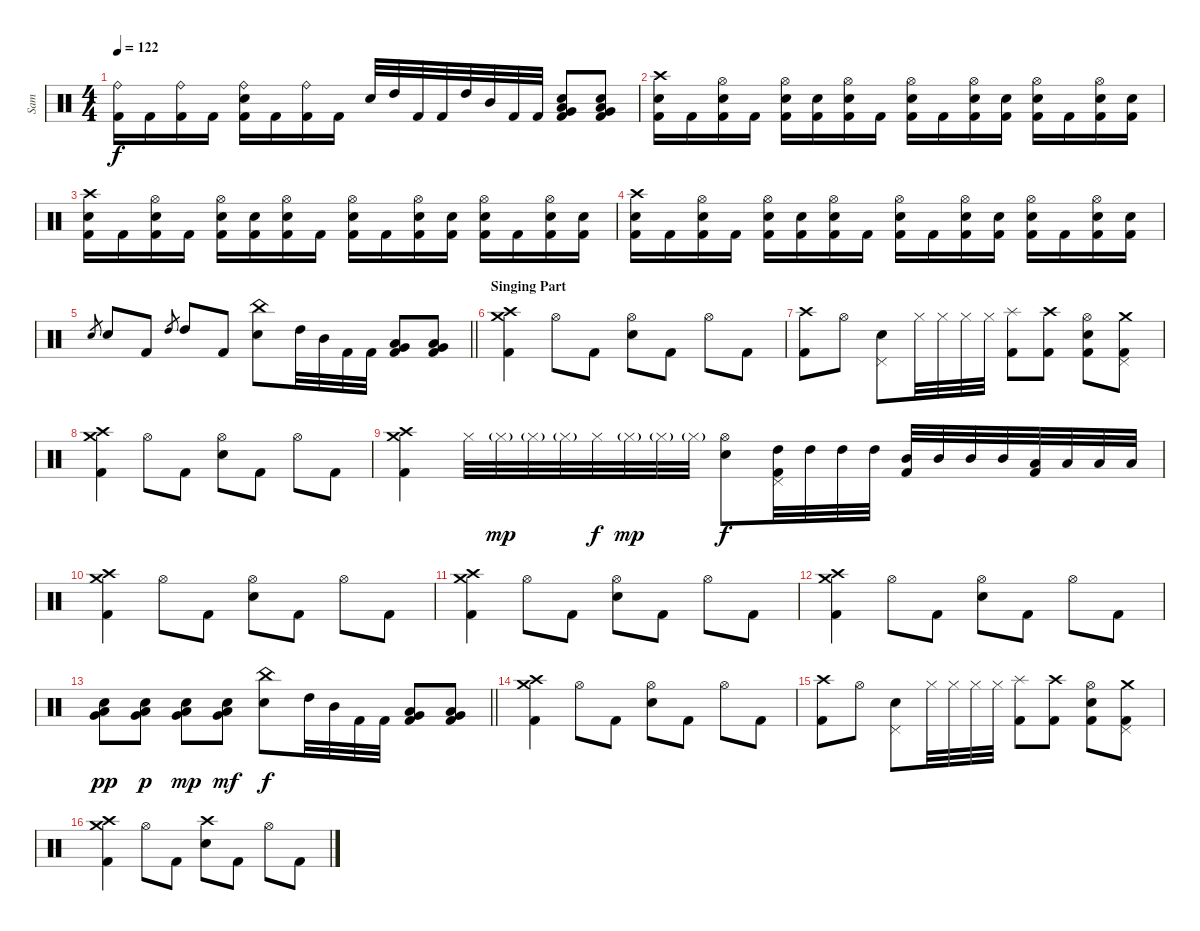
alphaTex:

\track ("Sam" "Sam") {solo instrument percussion}
\staff {score}
\articulation defaults
\ts (4 4)
\tempo 122
\clef neutral
\ks c
("Ride (bell)" "Kick (hit) 2").16{dy f} "Kick (hit) 2".16 ("Ride (bell)" "Kick (hit) 2").16 "Kick (hit) 2".16 ("Ride (bell)" "Electric Snare (hit)" "Kick (hit) 2").16 "Kick (hit) 2".16 ("Ride (bell)" "Kick (hit) 2").16 "Kick (hit) 2".16 "Electric Snare (hit)".32 "High Tom (hit)".32 "Kick (hit) 2".32 "Kick (hit) 2".32 "High Tom (hit)".32 "Mid Tom (hit)".32 "Kick (hit) 2".32 "Kick (hit) 2".32 ("Electric Snare (hit)" "Very Low Tom (hit)" "Low Floor Tom (hit)" "Kick (hit) 2").8 ("Electric Snare (hit)" "Very Low Tom (hit)" "Low Floor Tom (hit)" "Kick (hit) 2").8 |
("Crash high (hit)" "Electric Snare (hit)" "Kick (hit) 2").16 "Kick (hit) 2".16 ("Hi-Hat (open)" "Electric Snare (hit)" "Kick (hit) 2").16 "Kick (hit) 2".16 ("Hi-Hat (open)" "Electric Snare (hit)" "Kick (hit) 2").16 ("Electric Snare (hit)" "Kick (hit) 2").16 ("Hi-Hat (open)" "Electric Snare (hit)" "Kick (hit) 2").16 "Kick (hit) 2".16 ("Hi-Hat (open)" "Electric Snare (hit)" "Kick (hit) 2").16 "Kick (hit) 2".16 ("Hi-Hat (open)" "Electric Snare (hit)" "Kick (hit) 2").16 ("Electric Snare (hit)" "Kick (hit) 2").16 ("Hi-Hat (open)" "Electric Snare (hit)" "Kick (hit) 2").16 "Kick (hit) 2".16 ("Hi-Hat (open)" "Electric Snare (hit)" "Kick (hit) 2").16 ("Electric Snare (hit)" "Kick (hit) 2").16 |
("Crash high (hit)" "Electric Snare (hit)" "Kick (hit) 2").16 "Kick (hit) 2".16 ("Hi-Hat (open)" "Electric Snare (hit)" "Kick (hit) 2").16 "Kick (hit) 2".16 ("Hi-Hat (open)" "Electric Snare (hit)" "Kick (hit) 2").16 ("Electric Snare (hit)" "Kick (hit) 2").16 ("Hi-Hat (open)" "Electric Snare (hit)" "Kick (hit) 2").16 "Kick (hit) 2".16 ("Hi-Hat (open)" "Electric Snare (hit)" "Kick (hit) 2").16 "Kick (hit) 2".16 ("Hi-Hat (open)" "Electric Snare (hit)" "Kick (hit) 2").16 ("Electric Snare (hit)" "Kick (hit) 2").16 ("Hi-Hat (open)" "Electric Snare (hit)" "Kick (hit) 2").16 "Kick (hit) 2".16 ("Hi-Hat (open)" "Electric Snare (hit)" "Kick (hit) 2").16 ("Electric Snare (hit)" "Kick (hit) 2").16 |
("Crash high (hit)" "Electric Snare (hit)" "Kick (hit) 2").16 "Kick (hit) 2".16 ("Hi-Hat (open)" "Electric Snare (hit)" "Kick (hit) 2").16 "Kick (hit) 2".16 ("Hi-Hat (open)" "Electric Snare (hit)" "Kick (hit) 2").16 ("Electric Snare (hit)" "Kick (hit) 2").16 ("Hi-Hat (open)" "Electric Snare (hit)" "Kick (hit) 2").16 "Kick (hit) 2".16 ("Hi-Hat (open)" "Electric Snare (hit)" "Kick (hit) 2").16 "Kick (hit) 2".16 ("Hi-Hat (open)" "Electric Snare (hit)" "Kick (hit) 2").16 ("Electric Snare (hit)" "Kick (hit) 2").16 ("Hi-Hat (open)" "Electric Snare (hit)" "Kick (hit) 2").16 "Kick (hit) 2".16 ("Hi-Hat (open)" "Electric Snare (hit)" "Kick (hit) 2").16 ("Electric Snare (hit)" "Kick (hit) 2").16 |
\barLineRight lightlight "Electric Snare (hit)".8{gr} "Electric Snare (hit)".8 "Kick (hit) 2".8 "High Tom (hit)".8{gr} "High Tom (hit)".8 "Kick (hit) 2".8
("China (hit)" "Electric Snare (hit)").8 "High Tom (hit)".32 "Mid Tom (hit)".32 "Kick (hit) 2".32 "Kick (hit) 2".32 ("Very Low Tom (hit)" "Low Floor Tom (hit)" "Kick (hit) 2").8 ("Very Low Tom (hit)" "Low Floor Tom (hit)" "Kick (hit) 2").8 |
\section ("" "Singing Part")
("Crash medium (hit)" "Crash high (hit)" "Kick (hit) 2").4 "Hi-Hat (open)".8 "Kick (hit) 2".8 ("Hi-Hat (open)" "Electric Snare (hit)").8 "Kick (hit) 2".8 "Hi-Hat (open)".8 "Kick (hit) 2".8 |
("Crash high (hit)" "Kick (hit) 2").8 "Hi-Hat (open)".8 ("Electric Snare (hit)" "Pedal Hi-Hat (hit)").8 "Hi-Hat (closed)".32 "Hi-Hat (closed)".32 "Hi-Hat (closed)".32 "Hi-Hat (closed)".32 ("Splash (hit)" "Kick (hit) 2").8 ("Crash high (hit)" "Kick (hit) 2").8 ("Hi-Hat (open)" "Electric Snare (hit)" "Kick (hit) 2").8 ("Crash medium (hit)" "Pedal Hi-Hat (hit)" "Kick (hit) 2").8 |
("Crash medium (hit)" "Crash high (hit)" "Kick (hit) 2").4 "Hi-Hat (open)".8 "Kick (hit) 2".8 ("Hi-Hat (open)" "Electric Snare (hit)").8 "Kick (hit) 2".8 "Hi-Hat (open)".8 "Kick (hit) 2".8 |
("Crash medium (hit)" "Crash high (hit)" "Kick (hit) 2").4 "Hi-Hat (closed)".32 "Hi-Hat (closed)"{g}.32{dy mp} "Hi-Hat (closed)"{g}.32 "Hi-Hat (closed)"{g}.32 "Hi-Hat (closed)".32{dy f} "Hi-Hat (closed)"{g}.32{dy mp} "Hi-Hat (closed)"{g}.32 "Hi-Hat (closed)"{g}.32 ("Hi-Hat (open)" "Electric Snare (hit)").8{dy f} ("High Tom (hit)" "Pedal Hi-Hat (hit)" "Kick (hit) 2").32 "High Tom (hit)".32 "High Tom (hit)".32 "High Tom (hit)".32 ("Mid Tom (hit)" "Kick (hit) 2").32 "Mid Tom (hit)".32 "Mid Tom (hit)".32 "Mid Tom (hit)".32 ("Low Tom (hit)" "Kick (hit) 2").32 "Low Tom (hit)".32 "Low Tom (hit)".32 "Low Tom (hit)".32 |
("Crash medium (hit)" "Crash high (hit)" "Kick (hit) 2").4 "Hi-Hat (open)".8 "Kick (hit) 2".8 ("Hi-Hat (open)" "Electric Snare (hit)").8 "Kick (hit) 2".8 "Hi-Hat (open)".8 "Kick (hit) 2".8 |
("Crash medium (hit)" "Crash high (hit)" "Kick (hit) 2").4 "Hi-Hat (open)".8 "Kick (hit) 2".8 ("Hi-Hat (open)" "Electric Snare (hit)").8 "Kick (hit) 2".8 "Hi-Hat (open)".8 "Kick (hit) 2".8 |
("Crash medium (hit)" "Crash high (hit)" "Kick (hit) 2").4 "Hi-Hat (open)".8 "Kick (hit) 2".8 ("Hi-Hat (open)" "Electric Snare (hit)").8 "Kick (hit) 2".8 "Hi-Hat (open)".8 "Kick (hit) 2".8 |
\barLineRight lightlight
("Very Low Tom (hit)" "Low Floor Tom (hit)" "Electric Snare (hit)").8{dy pp} ("Very Low Tom (hit)" "Low Floor Tom (hit)" "Electric Snare (hit)").8{dy p} ("Very Low Tom (hit)" "Low Floor Tom (hit)" "Electric Snare (hit)").8{dy mp} ("Very Low Tom (hit)" "Low Floor Tom (hit)" "Electric Snare (hit)").8{dy mf} ("China (hit)" "Electric Snare (hit)").8{dy f} "High Tom (hit)".32 "Mid Tom (hit)".32 "Kick (hit) 2".32 "Kick (hit) 2".32 ("Very Low Tom (hit)" "Low Floor Tom (hit)" "Kick (hit) 2").8 ("Very Low Tom (hit)" "Low Floor Tom (hit)" "Kick (hit) 2").8 |
\section ("" " ")
("Crash medium (hit)" "Crash high (hit)" "Kick (hit) 2").4 "Hi-Hat (open)".8 "Kick (hit) 2".8 ("Hi-Hat (open)" "Electric Snare (hit)").8 "Kick (hit) 2".8 "Hi-Hat (open)".8 "Kick (hit) 2".8 |
("Crash high (hit)" "Kick (hit) 2").8 "Hi-Hat (open)".8 ("Electric Snare (hit)" "Pedal Hi-Hat (hit)").8 "Hi-Hat (closed)".32 "Hi-Hat (closed)".32 "Hi-Hat (closed)".32 "Hi-Hat (closed)".32 ("Splash (hit)" "Kick (hit) 2").8 ("Crash high (hit)" "Kick (hit) 2").8 ("Hi-Hat (open)" "Electric Snare (hit)" "Kick (hit) 2").8 ("Crash medium (hit)" "Pedal Hi-Hat (hit)" "Kick (hit) 2").8 |
("Crash medium (hit)" "Crash high (hit)" "Kick (hit) 2").4 "Hi-Hat (open)".8 "Kick (hit) 2".8 ("Crash high (hit)" "Electric Snare (hit)").8 "Kick (hit) 2".8 "Hi-Hat (open)".8 "Kick (hit) 2".8
